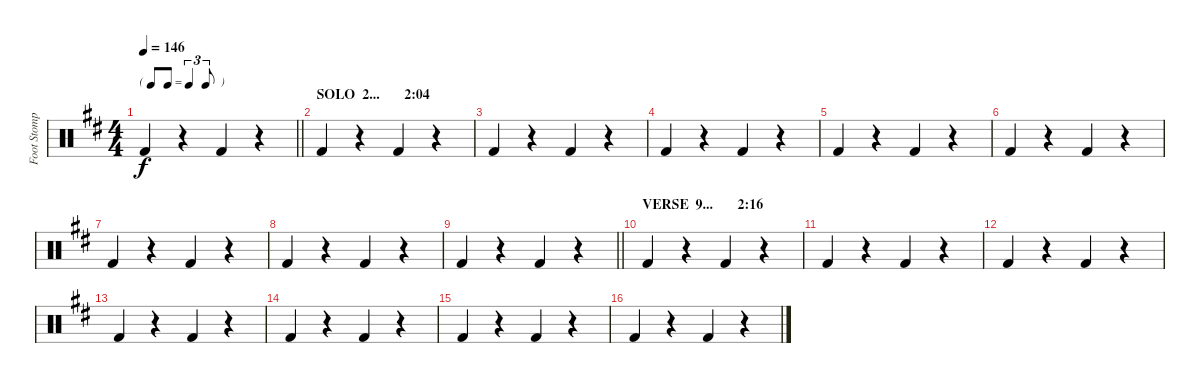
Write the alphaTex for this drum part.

\track ("Foot Stomp" "Foot Stomp") {instrument percussion}
\staff {score}
\articulation defaults
\ts (4 4)
\tf triplet8th
\tempo 146
\clef neutral
\barLineRight lightlight
\ks d "Kick (hit) 2".4{dy f}
r.4 "Kick (hit) 2".4 r.4 |
\section ("" "SOLO  2...       2:04")
"Kick (hit) 2".4 r.4 "Kick (hit) 2".4 r.4 |
"Kick (hit) 2".4 r.4 "Kick (hit) 2".4 r.4 |
"Kick (hit) 2".4 r.4 "Kick (hit) 2".4 r.4 |
"Kick (hit) 2".4 r.4 "Kick (hit) 2".4 r.4 |
"Kick (hit) 2".4 r.4 "Kick (hit) 2".4 r.4 |
"Kick (hit) 2".4 r.4 "Kick (hit) 2".4 r.4 |
"Kick (hit) 2".4 r.4 "Kick (hit) 2".4 r.4 |
\barLineRight lightlight "Kick (hit) 2".4
r.4 "Kick (hit) 2".4 r.4 |
\section ("" "VERSE  9...       2:16")
"Kick (hit) 2".4 r.4 "Kick (hit) 2".4 r.4 |
"Kick (hit) 2".4 r.4 "Kick (hit) 2".4 r.4 |
"Kick (hit) 2".4 r.4 "Kick (hit) 2".4 r.4 |
"Kick (hit) 2".4 r.4 "Kick (hit) 2".4 r.4 |
"Kick (hit) 2".4 r.4 "Kick (hit) 2".4 r.4 |
"Kick (hit) 2".4 r.4 "Kick (hit) 2".4 r.4 |
"Kick (hit) 2".4 r.4 "Kick (hit) 2".4 r.4
